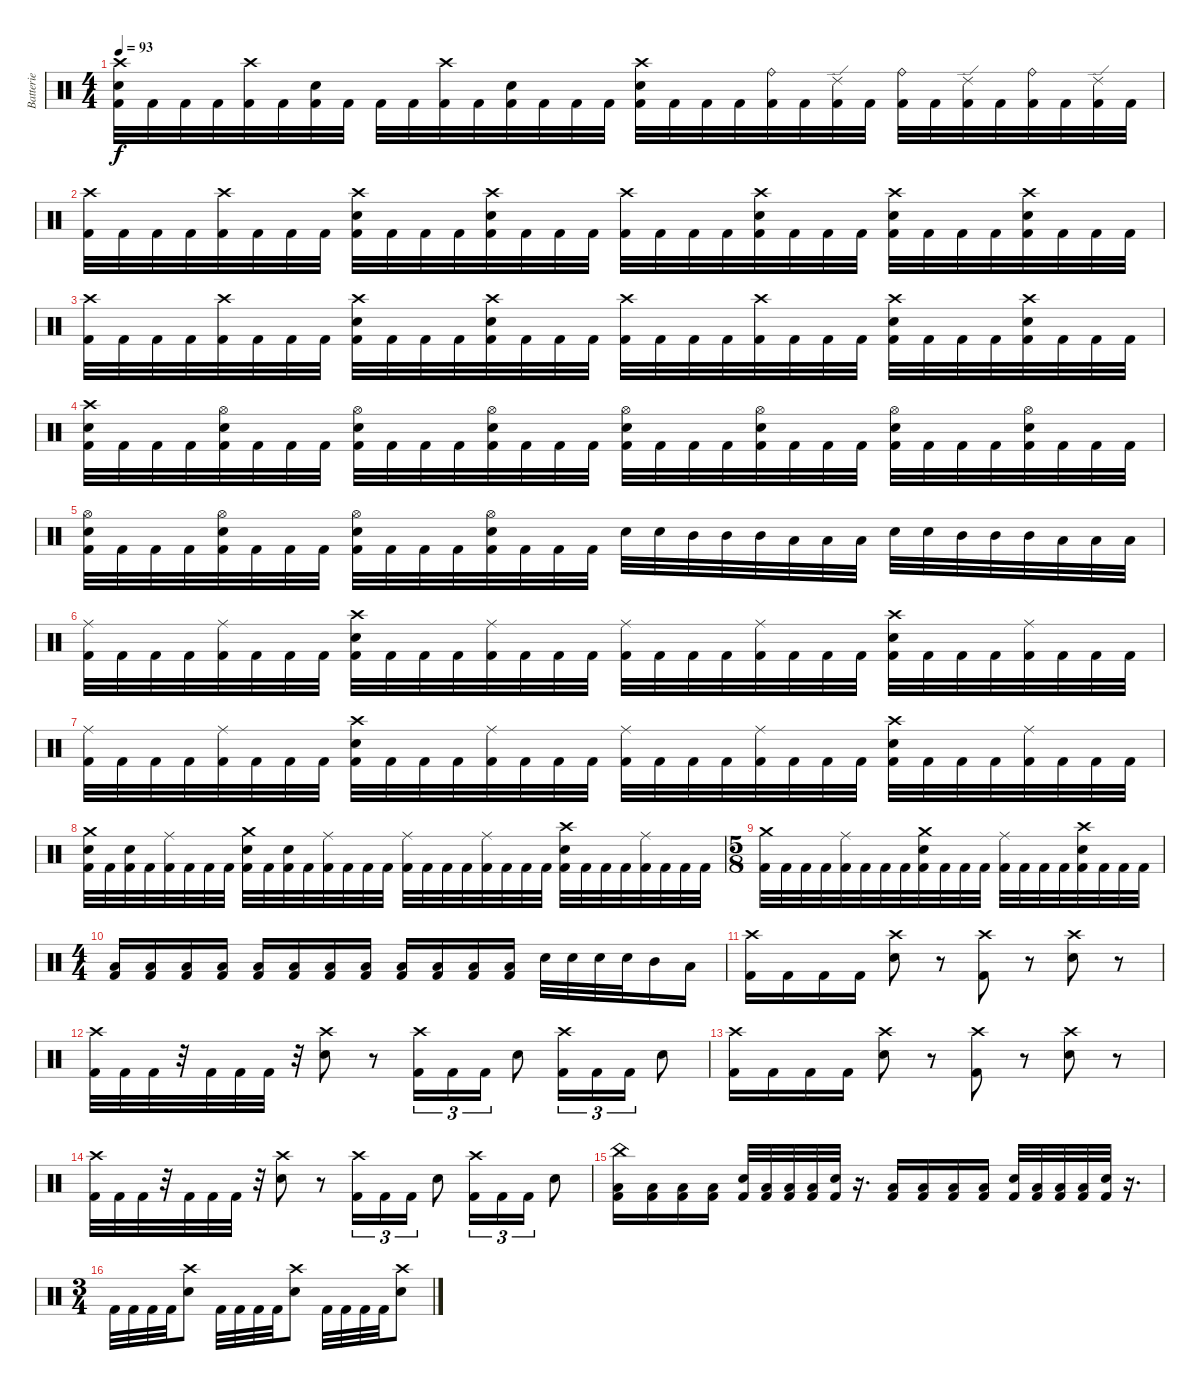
\track ("Batterie" "Batterie") {instrument percussion}
\staff {score}
\articulation defaults
\ts (4 4)
\tempo 93
\clef neutral
\ks c
("Crash high (hit)" "Electric Snare (hit)" "Kick (hit) 2").32{dy f} "Kick (hit) 2".32 "Kick (hit) 2".32 "Kick (hit) 2".32 ("Crash high (hit)" "Kick (hit) 2").32 "Kick (hit) 2".32 ("Electric Snare (hit)" "Kick (hit) 2").32 "Kick (hit) 2".32 "Kick (hit) 2".32 "Kick (hit) 2".32 ("Crash high (hit)" "Kick (hit) 2").32 "Kick (hit) 2".32 ("Electric Snare (hit)" "Kick (hit) 2").32 "Kick (hit) 2".32 "Kick (hit) 2".32 "Kick (hit) 2".32 ("Crash high (hit)" "Electric Snare (hit)" "Kick (hit) 2").32 "Kick (hit) 2".32 "Kick (hit) 2".32 "Kick (hit) 2".32 ("Ride (bell)" "Kick (hit) 2").32 "Kick (hit) 2".32 ("Ride (edge) 2" "Kick (hit) 2").32 "Kick (hit) 2".32 ("Ride (bell)" "Kick (hit) 2").32 "Kick (hit) 2".32 ("Ride (edge) 2" "Kick (hit) 2").32 "Kick (hit) 2".32 ("Ride (bell)" "Kick (hit) 2").32 "Kick (hit) 2".32 ("Ride (edge) 2" "Kick (hit) 2").32 "Kick (hit) 2".32 |
("Crash high (hit)" "Kick (hit) 2").32 "Kick (hit) 2".32 "Kick (hit) 2".32 "Kick (hit) 2".32 ("Crash high (hit)" "Kick (hit) 2").32 "Kick (hit) 2".32 "Kick (hit) 2".32 "Kick (hit) 2".32 ("Crash high (hit)" "Electric Snare (hit)" "Kick (hit) 2").32 "Kick (hit) 2".32 "Kick (hit) 2".32 "Kick (hit) 2".32 ("Crash high (hit)" "Electric Snare (hit)" "Kick (hit) 2").32 "Kick (hit) 2".32 "Kick (hit) 2".32 "Kick (hit) 2".32 ("Crash high (hit)" "Kick (hit) 2").32 "Kick (hit) 2".32 "Kick (hit) 2".32 "Kick (hit) 2".32 ("Crash high (hit)" "Electric Snare (hit)" "Kick (hit) 2").32 "Kick (hit) 2".32 "Kick (hit) 2".32 "Kick (hit) 2".32 ("Crash high (hit)" "Electric Snare (hit)" "Kick (hit) 2").32 "Kick (hit) 2".32 "Kick (hit) 2".32 "Kick (hit) 2".32 ("Crash high (hit)" "Electric Snare (hit)" "Kick (hit) 2").32 "Kick (hit) 2".32 "Kick (hit) 2".32 "Kick (hit) 2".32 |
("Crash high (hit)" "Kick (hit) 2").32 "Kick (hit) 2".32 "Kick (hit) 2".32 "Kick (hit) 2".32 ("Crash high (hit)" "Kick (hit) 2").32 "Kick (hit) 2".32 "Kick (hit) 2".32 "Kick (hit) 2".32 ("Crash high (hit)" "Electric Snare (hit)" "Kick (hit) 2").32 "Kick (hit) 2".32 "Kick (hit) 2".32 "Kick (hit) 2".32 ("Crash high (hit)" "Electric Snare (hit)" "Kick (hit) 2").32 "Kick (hit) 2".32 "Kick (hit) 2".32 "Kick (hit) 2".32 ("Crash high (hit)" "Kick (hit) 2").32 "Kick (hit) 2".32 "Kick (hit) 2".32 "Kick (hit) 2".32 ("Crash high (hit)" "Kick (hit) 2").32 "Kick (hit) 2".32 "Kick (hit) 2".32 "Kick (hit) 2".32 ("Crash high (hit)" "Electric Snare (hit)" "Kick (hit) 2").32 "Kick (hit) 2".32 "Kick (hit) 2".32 "Kick (hit) 2".32 ("Crash high (hit)" "Electric Snare (hit)" "Kick (hit) 2").32 "Kick (hit) 2".32 "Kick (hit) 2".32 "Kick (hit) 2".32 |
("Crash high (hit)" "Electric Snare (hit)" "Kick (hit) 2").32 "Kick (hit) 2".32 "Kick (hit) 2".32 "Kick (hit) 2".32 ("Hi-Hat (open)" "Electric Snare (hit)" "Kick (hit) 2").32 "Kick (hit) 2".32 "Kick (hit) 2".32 "Kick (hit) 2".32 ("Hi-Hat (open)" "Electric Snare (hit)" "Kick (hit) 2").32 "Kick (hit) 2".32 "Kick (hit) 2".32 "Kick (hit) 2".32 ("Hi-Hat (open)" "Electric Snare (hit)" "Kick (hit) 2").32 "Kick (hit) 2".32 "Kick (hit) 2".32 "Kick (hit) 2".32 ("Hi-Hat (open)" "Electric Snare (hit)" "Kick (hit) 2").32 "Kick (hit) 2".32 "Kick (hit) 2".32 "Kick (hit) 2".32 ("Hi-Hat (open)" "Electric Snare (hit)" "Kick (hit) 2").32 "Kick (hit) 2".32 "Kick (hit) 2".32 "Kick (hit) 2".32 ("Hi-Hat (open)" "Electric Snare (hit)" "Kick (hit) 2").32 "Kick (hit) 2".32 "Kick (hit) 2".32 "Kick (hit) 2".32 ("Hi-Hat (open)" "Electric Snare (hit)" "Kick (hit) 2").32 "Kick (hit) 2".32 "Kick (hit) 2".32 "Kick (hit) 2".32 |
("Hi-Hat (open)" "Electric Snare (hit)" "Kick (hit) 2").32 "Kick (hit) 2".32 "Kick (hit) 2".32 "Kick (hit) 2".32 ("Hi-Hat (open)" "Electric Snare (hit)" "Kick (hit) 2").32 "Kick (hit) 2".32 "Kick (hit) 2".32 "Kick (hit) 2".32 ("Hi-Hat (open)" "Electric Snare (hit)" "Kick (hit) 2").32 "Kick (hit) 2".32 "Kick (hit) 2".32 "Kick (hit) 2".32 ("Hi-Hat (open)" "Electric Snare (hit)" "Kick (hit) 2").32 "Kick (hit) 2".32 "Kick (hit) 2".32 "Kick (hit) 2".32 "Electric Snare (hit)".32 "Electric Snare (hit)".32 "Mid Tom (hit)".32 "Mid Tom (hit)".32 "Mid Tom (hit)".32 "Low Tom (hit)".32 "Low Tom (hit)".32 "Low Tom (hit)".32 "Electric Snare (hit)".32 "Electric Snare (hit)".32 "Mid Tom (hit)".32 "Mid Tom (hit)".32 "Mid Tom (hit)".32 "Low Tom (hit)".32 "Low Tom (hit)".32 "Low Tom (hit)".32 |
("Ride (middle)" "Kick (hit) 2").32 "Kick (hit) 2".32 "Kick (hit) 2".32 "Kick (hit) 2".32 ("Ride (middle)" "Kick (hit) 2").32 "Kick (hit) 2".32 "Kick (hit) 2".32 "Kick (hit) 2".32 ("Crash high (hit)" "Electric Snare (hit)" "Kick (hit) 2").32 "Kick (hit) 2".32 "Kick (hit) 2".32 "Kick (hit) 2".32 ("Ride (middle)" "Kick (hit) 2").32 "Kick (hit) 2".32 "Kick (hit) 2".32 "Kick (hit) 2".32 ("Ride (middle)" "Kick (hit) 2").32 "Kick (hit) 2".32 "Kick (hit) 2".32 "Kick (hit) 2".32 ("Ride (middle)" "Kick (hit) 2").32 "Kick (hit) 2".32 "Kick (hit) 2".32 "Kick (hit) 2".32 ("Crash high (hit)" "Electric Snare (hit)" "Kick (hit) 2").32 "Kick (hit) 2".32 "Kick (hit) 2".32 "Kick (hit) 2".32 ("Ride (middle)" "Kick (hit) 2").32 "Kick (hit) 2".32 "Kick (hit) 2".32 "Kick (hit) 2".32 |
("Ride (middle)" "Kick (hit) 2").32 "Kick (hit) 2".32 "Kick (hit) 2".32 "Kick (hit) 2".32 ("Ride (middle)" "Kick (hit) 2").32 "Kick (hit) 2".32 "Kick (hit) 2".32 "Kick (hit) 2".32 ("Crash high (hit)" "Electric Snare (hit)" "Kick (hit) 2").32 "Kick (hit) 2".32 "Kick (hit) 2".32 "Kick (hit) 2".32 ("Ride (middle)" "Kick (hit) 2").32 "Kick (hit) 2".32 "Kick (hit) 2".32 "Kick (hit) 2".32 ("Ride (middle)" "Kick (hit) 2").32 "Kick (hit) 2".32 "Kick (hit) 2".32 "Kick (hit) 2".32 ("Ride (middle)" "Kick (hit) 2").32 "Kick (hit) 2".32 "Kick (hit) 2".32 "Kick (hit) 2".32 ("Crash high (hit)" "Electric Snare (hit)" "Kick (hit) 2").32 "Kick (hit) 2".32 "Kick (hit) 2".32 "Kick (hit) 2".32 ("Ride (middle)" "Kick (hit) 2").32 "Kick (hit) 2".32 "Kick (hit) 2".32 "Kick (hit) 2".32 |
("Crash medium (hit)" "Electric Snare (hit)" "Kick (hit) 2").32 "Kick (hit) 2".32 ("Electric Snare (hit)" "Kick (hit) 2").32 "Kick (hit) 2".32 ("Ride (middle)" "Kick (hit) 2").32 "Kick (hit) 2".32 "Kick (hit) 2".32 "Kick (hit) 2".32 ("Crash medium (hit)" "Electric Snare (hit)" "Kick (hit) 2").32 "Kick (hit) 2".32 ("Electric Snare (hit)" "Kick (hit) 2").32 "Kick (hit) 2".32 ("Ride (middle)" "Kick (hit) 2").32 "Kick (hit) 2".32 "Kick (hit) 2".32 "Kick (hit) 2".32 ("Ride (middle)" "Kick (hit) 2").32 "Kick (hit) 2".32 "Kick (hit) 2".32 "Kick (hit) 2".32 ("Ride (middle)" "Kick (hit) 2").32 "Kick (hit) 2".32 "Kick (hit) 2".32 "Kick (hit) 2".32 ("Crash high (hit)" "Electric Snare (hit)" "Kick (hit) 2").32 "Kick (hit) 2".32 "Kick (hit) 2".32 "Kick (hit) 2".32 ("Ride (middle)" "Kick (hit) 2").32 "Kick (hit) 2".32 "Kick (hit) 2".32 "Kick (hit) 2".32 |
\ts (5 8)
("Crash medium (hit)" "Kick (hit) 2").32 "Kick (hit) 2".32 "Kick (hit) 2".32 "Kick (hit) 2".32 ("Ride (middle)" "Kick (hit) 2").32 "Kick (hit) 2".32 "Kick (hit) 2".32 "Kick (hit) 2".32 ("Crash medium (hit)" "Electric Snare (hit)" "Kick (hit) 2").32 "Kick (hit) 2".32 "Kick (hit) 2".32 "Kick (hit) 2".32 ("Ride (middle)" "Kick (hit) 2").32 "Kick (hit) 2".32 "Kick (hit) 2".32 "Kick (hit) 2".32 ("Crash high (hit)" "Electric Snare (hit)" "Kick (hit) 2").32 "Kick (hit) 2".32 "Kick (hit) 2".32 "Kick (hit) 2".32 |
\ts (4 4)
("Low Tom (hit)" "Kick (hit) 2").16 ("Low Tom (hit)" "Kick (hit) 2").16 ("Low Tom (hit)" "Kick (hit) 2").16 ("Low Tom (hit)" "Kick (hit) 2").16 ("Low Tom (hit)" "Kick (hit) 2").16 ("Low Tom (hit)" "Kick (hit) 2").16 ("Low Tom (hit)" "Kick (hit) 2").16 ("Low Tom (hit)" "Kick (hit) 2").16 ("Low Tom (hit)" "Kick (hit) 2").16 ("Low Tom (hit)" "Kick (hit) 2").16 ("Low Tom (hit)" "Kick (hit) 2").16 ("Low Tom (hit)" "Kick (hit) 2").16 "Electric Snare (hit)".32 "Electric Snare (hit)".32 "Electric Snare (hit)".32 "Electric Snare (hit)".32 "Mid Tom (hit)".16 "Low Tom (hit)".16 |
\section ("" "")
("Crash high (hit)" "Kick (hit) 2").16 "Kick (hit) 2".16 "Kick (hit) 2".16 "Kick (hit) 2".16 ("Crash high (hit)" "Electric Snare (hit)").8 r.8 ("Crash high (hit)" "Kick (hit) 2").8 r.8 ("Crash high (hit)" "Electric Snare (hit)").8 r.8 |
("Crash high (hit)" "Kick (hit) 2").32 "Kick (hit) 2".32 "Kick (hit) 2".32 r.32 "Kick (hit) 2".32 "Kick (hit) 2".32 "Kick (hit) 2".32 r.32 ("Crash high (hit)" "Electric Snare (hit)").8 r.8 ("Crash high (hit)" "Kick (hit) 2").16{tu (3 2)} "Kick (hit) 2".16{tu (3 2)} "Kick (hit) 2".16{tu (3 2)} "Electric Snare (hit)".8 ("Crash high (hit)" "Kick (hit) 2").16{tu (3 2)} "Kick (hit) 2".16{tu (3 2)} "Kick (hit) 2".16{tu (3 2)} "Electric Snare (hit)".8 |
("Crash high (hit)" "Kick (hit) 2").16 "Kick (hit) 2".16 "Kick (hit) 2".16 "Kick (hit) 2".16 ("Crash high (hit)" "Electric Snare (hit)").8 r.8 ("Crash high (hit)" "Kick (hit) 2").8 r.8 ("Crash high (hit)" "Electric Snare (hit)").8 r.8 |
("Crash high (hit)" "Kick (hit) 2").32 "Kick (hit) 2".32 "Kick (hit) 2".32 r.32 "Kick (hit) 2".32 "Kick (hit) 2".32 "Kick (hit) 2".32 r.32 ("Crash high (hit)" "Electric Snare (hit)").8 r.8 ("Crash high (hit)" "Kick (hit) 2").16{tu (3 2)} "Kick (hit) 2".16{tu (3 2)} "Kick (hit) 2".16{tu (3 2)} "Electric Snare (hit)".8 ("Crash high (hit)" "Kick (hit) 2").16{tu (3 2)} "Kick (hit) 2".16{tu (3 2)} "Kick (hit) 2".16{tu (3 2)} "Electric Snare (hit)".8 |
\section ("" "")
("China (hit)" "Low Tom (hit)" "Kick (hit) 2").16 ("Low Tom (hit)" "Kick (hit) 2").16 ("Low Tom (hit)" "Kick (hit) 2").16 ("Low Tom (hit)" "Kick (hit) 2").16 ("Electric Snare (hit)" "Kick (hit) 2").32 ("Low Tom (hit)" "Kick (hit) 2").32 ("Low Tom (hit)" "Kick (hit) 2").32 ("Low Tom (hit)" "Kick (hit) 2").32 ("Electric Snare (hit)" "Kick (hit) 2").32 r.16{d} ("Low Tom (hit)" "Kick (hit) 2").16 ("Low Tom (hit)" "Kick (hit) 2").16 ("Low Tom (hit)" "Kick (hit) 2").16 ("Low Tom (hit)" "Kick (hit) 2").16 ("Electric Snare (hit)" "Kick (hit) 2").32 ("Low Tom (hit)" "Kick (hit) 2").32 ("Low Tom (hit)" "Kick (hit) 2").32 ("Low Tom (hit)" "Kick (hit) 2").32 ("Electric Snare (hit)" "Kick (hit) 2").32 r.16{d} |
\ts (3 4)
"Kick (hit) 2".32 "Kick (hit) 2".32 "Kick (hit) 2".32 "Kick (hit) 2".32 ("Crash high (hit)" "Electric Snare (hit)").8 "Kick (hit) 2".32 "Kick (hit) 2".32 "Kick (hit) 2".32 "Kick (hit) 2".32 ("Crash high (hit)" "Electric Snare (hit)").8 "Kick (hit) 2".32 "Kick (hit) 2".32 "Kick (hit) 2".32 "Kick (hit) 2".32 ("Crash high (hit)" "Electric Snare (hit)").8
